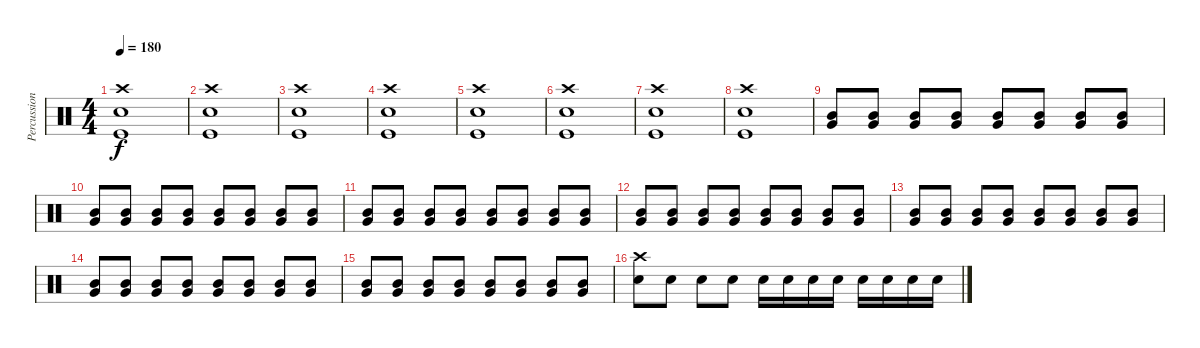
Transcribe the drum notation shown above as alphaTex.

\track ("Percussion" "Percussion") {instrument percussion}
\staff {score}
\articulation defaults
\ts (4 4)
\tempo 180
\clef neutral
\ks c
("Kick (hit)" "Crash high (hit)" "Snare (hit) 2").1{dy f} |
("Kick (hit)" "Crash high (hit)" "Snare (hit) 2").1 |
("Kick (hit)" "Crash high (hit)" "Snare (hit) 2").1 |
("Kick (hit)" "Crash high (hit)" "Snare (hit) 2").1 |
("Kick (hit)" "Crash high (hit)" "Snare (hit) 2").1 |
("Kick (hit)" "Crash high (hit)" "Snare (hit) 2").1 |
("Kick (hit)" "Crash high (hit)" "Snare (hit) 2").1 |
("Kick (hit)" "Crash high (hit)" "Snare (hit) 2").1 |
("Mid Tom (hit)" "Very Low Tom (hit)").8{volume 1} ("Mid Tom (hit)" "Very Low Tom (hit)").8 ("Mid Tom (hit)" "Very Low Tom (hit)").8 ("Mid Tom (hit)" "Very Low Tom (hit)").8 ("Mid Tom (hit)" "Very Low Tom (hit)").8 ("Mid Tom (hit)" "Very Low Tom (hit)").8 ("Mid Tom (hit)" "Very Low Tom (hit)").8 ("Mid Tom (hit)" "Very Low Tom (hit)").8 |
("Mid Tom (hit)" "Very Low Tom (hit)").8 ("Mid Tom (hit)" "Very Low Tom (hit)").8 ("Mid Tom (hit)" "Very Low Tom (hit)").8 ("Mid Tom (hit)" "Very Low Tom (hit)").8 ("Mid Tom (hit)" "Very Low Tom (hit)").8 ("Mid Tom (hit)" "Very Low Tom (hit)").8 ("Mid Tom (hit)" "Very Low Tom (hit)").8 ("Mid Tom (hit)" "Very Low Tom (hit)").8 |
("Mid Tom (hit)" "Very Low Tom (hit)").8 ("Mid Tom (hit)" "Very Low Tom (hit)").8 ("Mid Tom (hit)" "Very Low Tom (hit)").8 ("Mid Tom (hit)" "Very Low Tom (hit)").8 ("Mid Tom (hit)" "Very Low Tom (hit)").8 ("Mid Tom (hit)" "Very Low Tom (hit)").8 ("Mid Tom (hit)" "Very Low Tom (hit)").8 ("Mid Tom (hit)" "Very Low Tom (hit)").8 |
("Mid Tom (hit)" "Very Low Tom (hit)").8 ("Mid Tom (hit)" "Very Low Tom (hit)").8 ("Mid Tom (hit)" "Very Low Tom (hit)").8 ("Mid Tom (hit)" "Very Low Tom (hit)").8 ("Mid Tom (hit)" "Very Low Tom (hit)").8 ("Mid Tom (hit)" "Very Low Tom (hit)").8 ("Mid Tom (hit)" "Very Low Tom (hit)").8 ("Mid Tom (hit)" "Very Low Tom (hit)").8 |
("Mid Tom (hit)" "Very Low Tom (hit)").8{volume 2} ("Mid Tom (hit)" "Very Low Tom (hit)").8 ("Mid Tom (hit)" "Very Low Tom (hit)").8 ("Mid Tom (hit)" "Very Low Tom (hit)").8 ("Mid Tom (hit)" "Very Low Tom (hit)").8 ("Mid Tom (hit)" "Very Low Tom (hit)").8 ("Mid Tom (hit)" "Very Low Tom (hit)").8 ("Mid Tom (hit)" "Very Low Tom (hit)").8 |
("Mid Tom (hit)" "Very Low Tom (hit)").8 ("Mid Tom (hit)" "Very Low Tom (hit)").8 ("Mid Tom (hit)" "Very Low Tom (hit)").8 ("Mid Tom (hit)" "Very Low Tom (hit)").8 ("Mid Tom (hit)" "Very Low Tom (hit)").8 ("Mid Tom (hit)" "Very Low Tom (hit)").8 ("Mid Tom (hit)" "Very Low Tom (hit)").8 ("Mid Tom (hit)" "Very Low Tom (hit)").8 |
("Mid Tom (hit)" "Very Low Tom (hit)").8{volume 3} ("Mid Tom (hit)" "Very Low Tom (hit)").8 ("Mid Tom (hit)" "Very Low Tom (hit)").8 ("Mid Tom (hit)" "Very Low Tom (hit)").8 ("Mid Tom (hit)" "Very Low Tom (hit)").8 ("Mid Tom (hit)" "Very Low Tom (hit)").8 ("Mid Tom (hit)" "Very Low Tom (hit)").8 ("Mid Tom (hit)" "Very Low Tom (hit)").8 |
("Snare (hit) 2" "Crash high (hit)").8 "Snare (hit) 2".8 "Snare (hit) 2".8 "Snare (hit) 2".8 "Snare (hit) 2".16 "Snare (hit) 2".16 "Snare (hit) 2".16 "Snare (hit) 2".16 "Snare (hit) 2".16 "Snare (hit) 2".16 "Snare (hit) 2".16 "Snare (hit) 2".16
